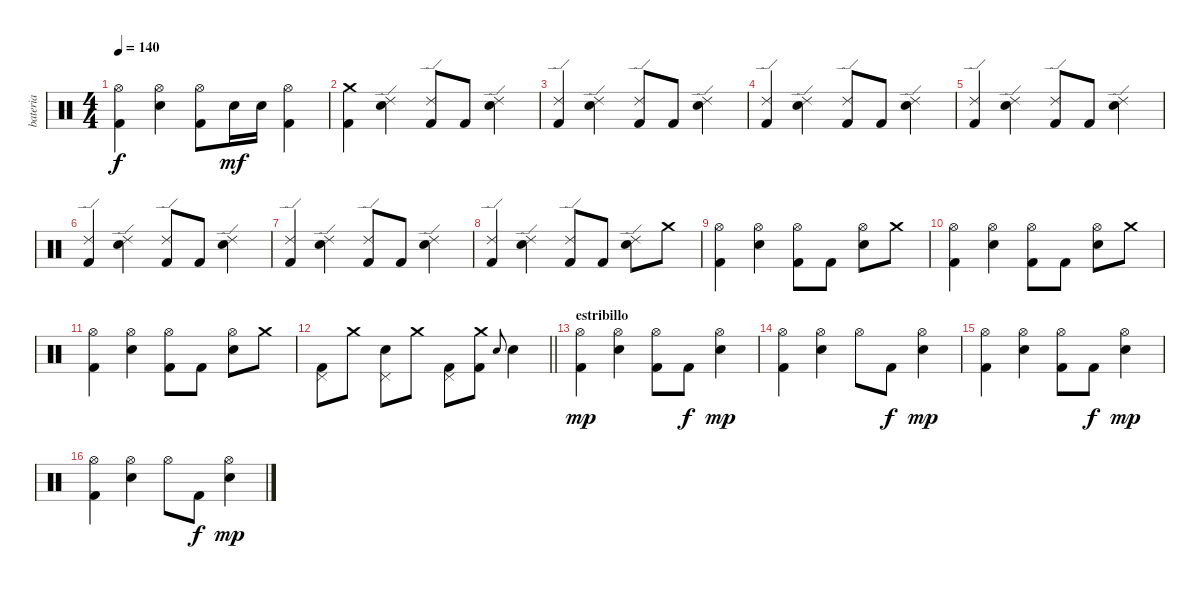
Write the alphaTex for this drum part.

\track ("bateria" "bateria") {instrument percussion}
\staff {score}
\articulation defaults
\ts (4 4)
\tempo 140
\clef neutral
\ks c
("Hi-Hat (open)" "Kick (hit) 2").4{dy f} ("Hi-Hat (open)" "Snare (hit) 2").4 ("Hi-Hat (open)" "Kick (hit) 2").8 "Snare (hit) 2".16{dy mf} "Snare (hit) 2".16 ("Hi-Hat (open)" "Kick (hit) 2").4 |
("Crash medium (hit)" "Kick (hit) 2").4 ("Ride (edge) 2" "Snare (hit) 2").4 ("Ride (edge) 2" "Kick (hit) 2").8 "Kick (hit) 2".8 ("Ride (edge) 2" "Snare (hit) 2").4 |
("Ride (edge) 2" "Kick (hit) 2").4 ("Ride (edge) 2" "Snare (hit) 2").4 ("Ride (edge) 2" "Kick (hit) 2").8 "Kick (hit) 2".8 ("Ride (edge) 2" "Snare (hit) 2").4 |
("Ride (edge) 2" "Kick (hit) 2").4 ("Ride (edge) 2" "Snare (hit) 2").4 ("Ride (edge) 2" "Kick (hit) 2").8 "Kick (hit) 2".8 ("Ride (edge) 2" "Snare (hit) 2").4 |
("Ride (edge) 2" "Kick (hit) 2").4 ("Ride (edge) 2" "Snare (hit) 2").4 ("Ride (edge) 2" "Kick (hit) 2").8 "Kick (hit) 2".8 ("Ride (edge) 2" "Snare (hit) 2").4 |
("Ride (edge) 2" "Kick (hit) 2").4 ("Ride (edge) 2" "Snare (hit) 2").4 ("Ride (edge) 2" "Kick (hit) 2").8 "Kick (hit) 2".8 ("Ride (edge) 2" "Snare (hit) 2").4 |
("Ride (edge) 2" "Kick (hit) 2").4 ("Ride (edge) 2" "Snare (hit) 2").4 ("Ride (edge) 2" "Kick (hit) 2").8 "Kick (hit) 2".8 ("Ride (edge) 2" "Snare (hit) 2").4 |
("Ride (edge) 2" "Kick (hit) 2").4 ("Ride (edge) 2" "Snare (hit) 2").4 ("Ride (edge) 2" "Kick (hit) 2").8 "Kick (hit) 2".8 ("Ride (edge) 2" "Snare (hit) 2").8 "Crash medium (hit)".8 |
("Hi-Hat (open)" "Kick (hit) 2").4 ("Hi-Hat (open)" "Snare (hit) 2").4 ("Hi-Hat (open)" "Kick (hit) 2").8 "Kick (hit) 2".8 ("Hi-Hat (open)" "Snare (hit) 2").8 "Crash medium (hit)".8 |
("Hi-Hat (open)" "Kick (hit) 2").4 ("Hi-Hat (open)" "Snare (hit) 2").4 ("Hi-Hat (open)" "Kick (hit) 2").8 "Kick (hit) 2".8 ("Hi-Hat (open)" "Snare (hit) 2").8 "Crash medium (hit)".8 |
("Hi-Hat (open)" "Kick (hit) 2").4 ("Hi-Hat (open)" "Snare (hit) 2").4 ("Hi-Hat (open)" "Kick (hit) 2").8 "Kick (hit) 2".8 ("Hi-Hat (open)" "Snare (hit) 2").8 "Crash medium (hit)".8 |
\barLineRight lightlight
("Pedal Hi-Hat (hit)" "Kick (hit) 2").8 "Crash medium (hit)".8 ("Pedal Hi-Hat (hit)" "Snare (hit) 2").8 "Crash medium (hit)".8 ("Pedal Hi-Hat (hit)" "Kick (hit) 2").8 ("Crash medium (hit)" "Kick (hit) 2").8 "Snare (hit) 2".8{gr onbeat} "Snare (hit) 2".4 |
\section ("" "estribillo")
("Hi-Hat (open)" "Kick (hit) 2").4{dy mp} ("Hi-Hat (open)" "Snare (hit) 2").4 ("Hi-Hat (open)" "Kick (hit) 2").8 "Kick (hit) 2".8{dy f} ("Hi-Hat (open)" "Snare (hit) 2").4{dy mp} |
("Hi-Hat (open)" "Kick (hit) 2").4 ("Hi-Hat (open)" "Snare (hit) 2").4 "Hi-Hat (open)".8 "Kick (hit) 2".8{dy f} ("Hi-Hat (open)" "Snare (hit) 2").4{dy mp} |
("Hi-Hat (open)" "Kick (hit) 2").4 ("Hi-Hat (open)" "Snare (hit) 2").4 ("Hi-Hat (open)" "Kick (hit) 2").8 "Kick (hit) 2".8{dy f} ("Hi-Hat (open)" "Snare (hit) 2").4{dy mp} |
("Hi-Hat (open)" "Kick (hit) 2").4 ("Hi-Hat (open)" "Snare (hit) 2").4 "Hi-Hat (open)".8 "Kick (hit) 2".8{dy f} ("Hi-Hat (open)" "Snare (hit) 2").4{dy mp}
